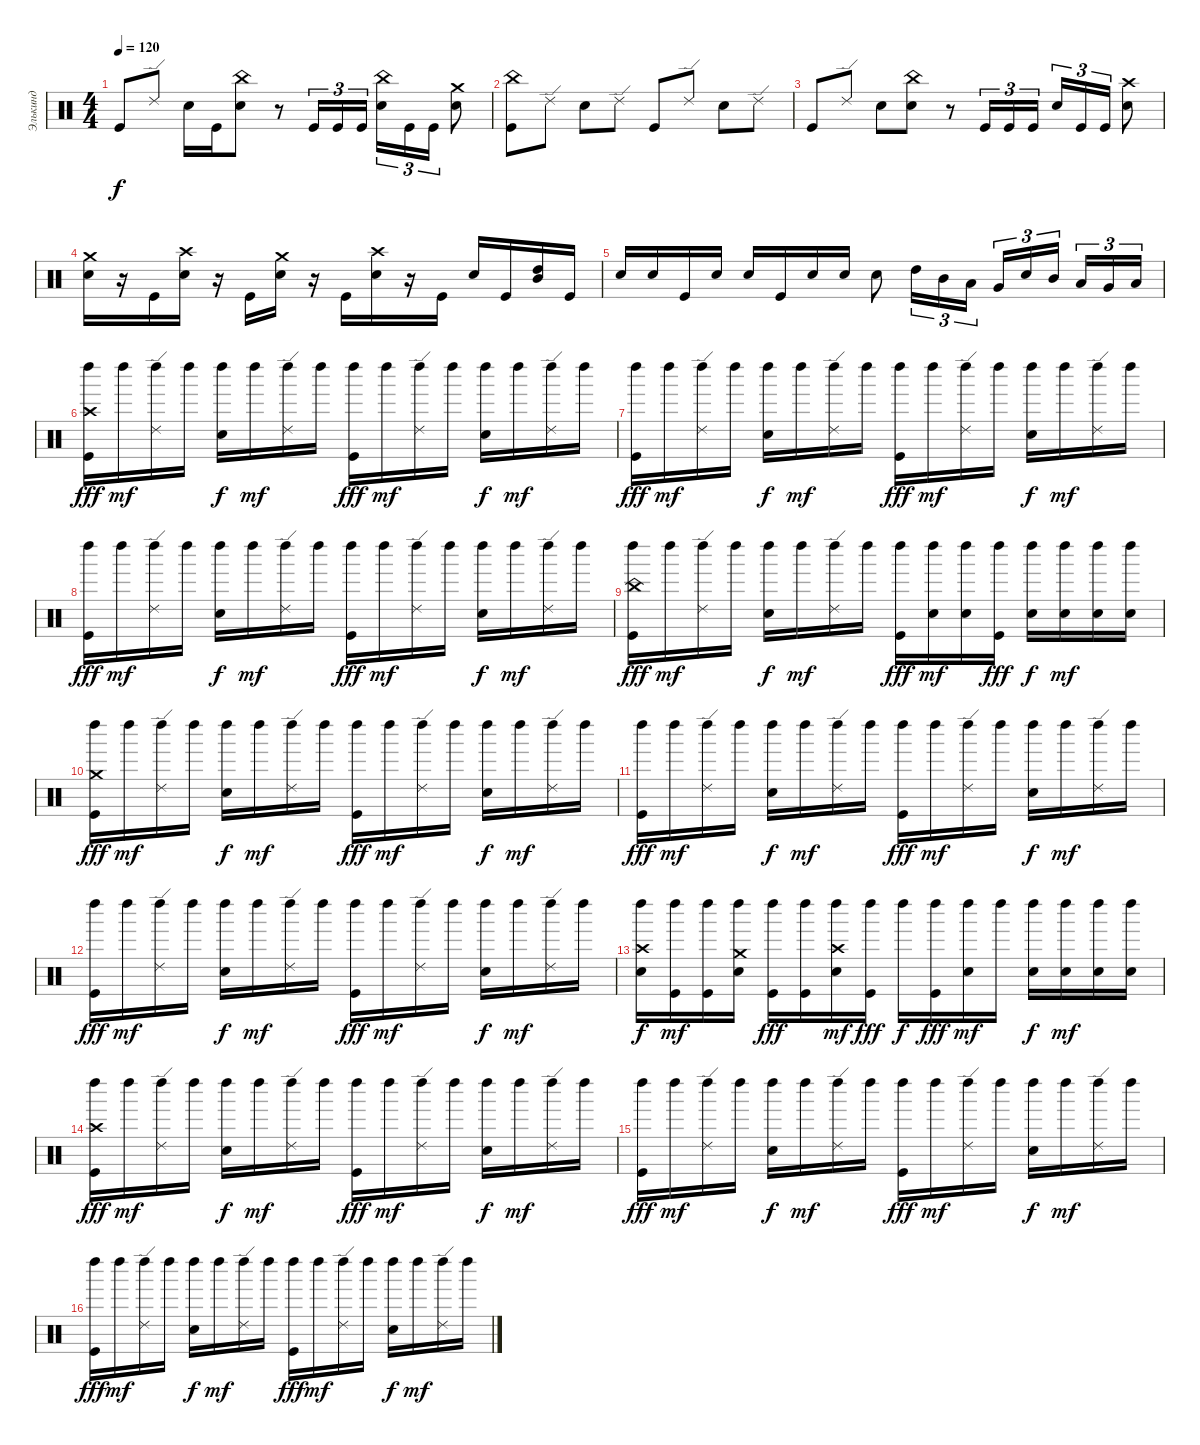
\track ("Элькинд" "Элькинд") {instrument percussion}
\staff {score}
\articulation defaults
\ts (4 4)
\tempo 120
\clef neutral
\ks c "Kick (hit)".8{dy f} "Ride (edge) 2".8 "Electric Snare (hit)".16 "Kick (hit)".16
("China (hit)" "Electric Snare (hit)").8 r.8 "Kick (hit)".16{tu (3 2)} "Kick (hit)".16{tu (3 2)} "Kick (hit)".16{tu (3 2)} ("China (hit)" "Electric Snare (hit)").16{tu (3 2)} "Kick (hit)".16{tu (3 2)} "Kick (hit)".16{tu (3 2)} ("Crash medium (hit)" "Electric Snare (hit)").8 |
("China (hit)" "Kick (hit)").8 "Ride (edge) 2".8 "Electric Snare (hit)".8 "Ride (edge) 2".8 "Kick (hit)".8 "Ride (edge) 2".8 "Electric Snare (hit)".8 "Ride (edge) 2".8 |
"Kick (hit)".8 "Ride (edge) 2".8 "Electric Snare (hit)".8 ("China (hit)" "Electric Snare (hit)").8 r.8 "Kick (hit)".16{tu (3 2)} "Kick (hit)".16{tu (3 2)} "Kick (hit)".16{tu (3 2)} "Electric Snare (hit)".16{tu (3 2)} "Kick (hit)".16{tu (3 2)} "Kick (hit)".16{tu (3 2)} ("Crash high (hit)" "Electric Snare (hit)").8 |
("Crash medium (hit)" "Electric Snare (hit)").16 r.16 "Kick (hit)".16 ("Crash high (hit)" "Electric Snare (hit)").16 r.16 "Kick (hit)".16 ("Crash medium (hit)" "Electric Snare (hit)").16 r.16 "Kick (hit)".16 ("Crash high (hit)" "Electric Snare (hit)").16 r.16 "Kick (hit)".16 "Electric Snare (hit)".16 "Kick (hit)".16 ("High Tom (hit)" "Mid Tom (hit)").16 "Kick (hit)".16 |
"Electric Snare (hit)".16 "Electric Snare (hit)".16 "Kick (hit)".16 "Electric Snare (hit)".16 "Electric Snare (hit)".16 "Kick (hit)".16 "Electric Snare (hit)".16 "Electric Snare (hit)".16 "Electric Snare (hit)".8 "High Tom (hit)".16{tu (3 2)} "Mid Tom (hit)".16{tu (3 2)} "Low Tom (hit)".16{tu (3 2)} "Very Low Tom (hit)".16{tu (3 2)} "Electric Snare (hit)".16{tu (3 2)} "Mid Tom (hit)".16{tu (3 2) beam splitsecondary} "Low Tom (hit)".16{tu (3 2)} "Very Low Tom (hit)".16{tu (3 2)} "Low Floor Tom (hit)".16{tu (3 2)} |
("Left Maraca (hit)" "Crash high (hit)" "Kick (hit)").16{dy fff} "Left Maraca (hit)".16{dy mf} ("Left Maraca (hit)" "Ride (edge) 2").16 "Left Maraca (hit)".16 ("Left Maraca (hit)" "Electric Snare (hit)").16{dy f} "Left Maraca (hit)".16{dy mf} ("Left Maraca (hit)" "Ride (edge) 2").16 "Left Maraca (hit)".16 ("Left Maraca (hit)" "Kick (hit)").16{dy fff} "Left Maraca (hit)".16{dy mf} ("Left Maraca (hit)" "Ride (edge) 2").16 "Left Maraca (hit)".16 ("Left Maraca (hit)" "Electric Snare (hit)").16{dy f} "Left Maraca (hit)".16{dy mf} ("Left Maraca (hit)" "Ride (edge) 2").16 "Left Maraca (hit)".16 |
("Left Maraca (hit)" "Kick (hit)").16{dy fff} "Left Maraca (hit)".16{dy mf} ("Left Maraca (hit)" "Ride (edge) 2").16 "Left Maraca (hit)".16 ("Left Maraca (hit)" "Electric Snare (hit)").16{dy f} "Left Maraca (hit)".16{dy mf} ("Left Maraca (hit)" "Ride (edge) 2").16 "Left Maraca (hit)".16 ("Left Maraca (hit)" "Kick (hit)").16{dy fff} "Left Maraca (hit)".16{dy mf} ("Left Maraca (hit)" "Ride (edge) 2").16 "Left Maraca (hit)".16 ("Left Maraca (hit)" "Electric Snare (hit)").16{dy f} "Left Maraca (hit)".16{dy mf} ("Left Maraca (hit)" "Ride (edge) 2").16 "Left Maraca (hit)".16 |
("Left Maraca (hit)" "Kick (hit)").16{dy fff} "Left Maraca (hit)".16{dy mf} ("Left Maraca (hit)" "Ride (edge) 2").16 "Left Maraca (hit)".16 ("Left Maraca (hit)" "Electric Snare (hit)").16{dy f} "Left Maraca (hit)".16{dy mf} ("Left Maraca (hit)" "Ride (edge) 2").16 "Left Maraca (hit)".16 ("Left Maraca (hit)" "Kick (hit)").16{dy fff} "Left Maraca (hit)".16{dy mf} ("Left Maraca (hit)" "Ride (edge) 2").16 "Left Maraca (hit)".16 ("Left Maraca (hit)" "Electric Snare (hit)").16{dy f} "Left Maraca (hit)".16{dy mf} ("Left Maraca (hit)" "Ride (edge) 2").16 "Left Maraca (hit)".16 |
("Kick (hit)" "China (hit)" "Left Maraca (hit)").16{dy fff} "Left Maraca (hit)".16{dy mf} ("Left Maraca (hit)" "Ride (edge) 2").16 "Left Maraca (hit)".16 ("Electric Snare (hit)" "Left Maraca (hit)").16{dy f} "Left Maraca (hit)".16{dy mf} ("Ride (edge) 2" "Left Maraca (hit)").16 "Left Maraca (hit)".16 ("Left Maraca (hit)" "Kick (hit)").16{dy fff} ("Electric Snare (hit)" "Left Maraca (hit)").16{dy mf} ("Left Maraca (hit)" "Electric Snare (hit)").16 ("Left Maraca (hit)" "Kick (hit)").16{dy fff} ("Electric Snare (hit)" "Left Maraca (hit)").16{dy f} ("Left Maraca (hit)" "Electric Snare (hit)").16{dy mf} ("Left Maraca (hit)" "Electric Snare (hit)").16 ("Electric Snare (hit)" "Left Maraca (hit)").16 |
("Left Maraca (hit)" "Crash medium (hit)" "Kick (hit)").16{dy fff} "Left Maraca (hit)".16{dy mf} ("Left Maraca (hit)" "Ride (edge) 2").16 "Left Maraca (hit)".16 ("Left Maraca (hit)" "Electric Snare (hit)").16{dy f} "Left Maraca (hit)".16{dy mf} ("Left Maraca (hit)" "Ride (edge) 2").16 "Left Maraca (hit)".16 ("Left Maraca (hit)" "Kick (hit)").16{dy fff} "Left Maraca (hit)".16{dy mf} ("Left Maraca (hit)" "Ride (edge) 2").16 "Left Maraca (hit)".16 ("Left Maraca (hit)" "Electric Snare (hit)").16{dy f} "Left Maraca (hit)".16{dy mf} ("Left Maraca (hit)" "Ride (edge) 2").16 "Left Maraca (hit)".16 |
("Left Maraca (hit)" "Kick (hit)").16{dy fff} "Left Maraca (hit)".16{dy mf} ("Left Maraca (hit)" "Ride (edge) 2").16 "Left Maraca (hit)".16 ("Left Maraca (hit)" "Electric Snare (hit)").16{dy f} "Left Maraca (hit)".16{dy mf} ("Left Maraca (hit)" "Ride (edge) 2").16 "Left Maraca (hit)".16 ("Left Maraca (hit)" "Kick (hit)").16{dy fff} "Left Maraca (hit)".16{dy mf} ("Left Maraca (hit)" "Ride (edge) 2").16 "Left Maraca (hit)".16 ("Left Maraca (hit)" "Electric Snare (hit)").16{dy f} "Left Maraca (hit)".16{dy mf} ("Left Maraca (hit)" "Ride (edge) 2").16 "Left Maraca (hit)".16 |
("Left Maraca (hit)" "Kick (hit)").16{dy fff} "Left Maraca (hit)".16{dy mf} ("Left Maraca (hit)" "Ride (edge) 2").16 "Left Maraca (hit)".16 ("Left Maraca (hit)" "Electric Snare (hit)").16{dy f} "Left Maraca (hit)".16{dy mf} ("Left Maraca (hit)" "Ride (edge) 2").16 "Left Maraca (hit)".16 ("Left Maraca (hit)" "Kick (hit)").16{dy fff} "Left Maraca (hit)".16{dy mf} ("Left Maraca (hit)" "Ride (edge) 2").16 "Left Maraca (hit)".16 ("Left Maraca (hit)" "Electric Snare (hit)").16{dy f} "Left Maraca (hit)".16{dy mf} ("Left Maraca (hit)" "Ride (edge) 2").16 "Left Maraca (hit)".16 |
("Crash high (hit)" "Electric Snare (hit)" "Left Maraca (hit)").16{dy f} ("Kick (hit)" "Left Maraca (hit)").16{dy mf} ("Kick (hit)" "Left Maraca (hit)").16 ("Left Maraca (hit)" "Crash medium (hit)" "Electric Snare (hit)").16 ("Kick (hit)" "Left Maraca (hit)").16{dy fff} ("Left Maraca (hit)" "Kick (hit)").16 ("Left Maraca (hit)" "Crash high (hit)" "Electric Snare (hit)").16{dy mf} ("Left Maraca (hit)" "Kick (hit)").16{dy fff} "Left Maraca (hit)".16{dy f} ("Left Maraca (hit)" "Kick (hit)").16{dy fff} ("Electric Snare (hit)" "Left Maraca (hit)").16{dy mf} "Left Maraca (hit)".16 ("Left Maraca (hit)" "Electric Snare (hit)").16{dy f} ("Electric Snare (hit)" "Left Maraca (hit)").16{dy mf} ("Electric Snare (hit)" "Left Maraca (hit)").16 ("Electric Snare (hit)" "Left Maraca (hit)").16 |
("Left Maraca (hit)" "Crash high (hit)" "Kick (hit)").16{dy fff} "Left Maraca (hit)".16{dy mf} ("Left Maraca (hit)" "Ride (edge) 2").16 "Left Maraca (hit)".16 ("Left Maraca (hit)" "Electric Snare (hit)").16{dy f} "Left Maraca (hit)".16{dy mf} ("Left Maraca (hit)" "Ride (edge) 2").16 "Left Maraca (hit)".16 ("Left Maraca (hit)" "Kick (hit)").16{dy fff} "Left Maraca (hit)".16{dy mf} ("Left Maraca (hit)" "Ride (edge) 2").16 "Left Maraca (hit)".16 ("Left Maraca (hit)" "Electric Snare (hit)").16{dy f} "Left Maraca (hit)".16{dy mf} ("Left Maraca (hit)" "Ride (edge) 2").16 "Left Maraca (hit)".16 |
("Left Maraca (hit)" "Kick (hit)").16{dy fff} "Left Maraca (hit)".16{dy mf} ("Left Maraca (hit)" "Ride (edge) 2").16 "Left Maraca (hit)".16 ("Left Maraca (hit)" "Electric Snare (hit)").16{dy f} "Left Maraca (hit)".16{dy mf} ("Left Maraca (hit)" "Ride (edge) 2").16 "Left Maraca (hit)".16 ("Left Maraca (hit)" "Kick (hit)").16{dy fff} "Left Maraca (hit)".16{dy mf} ("Left Maraca (hit)" "Ride (edge) 2").16 "Left Maraca (hit)".16 ("Left Maraca (hit)" "Electric Snare (hit)").16{dy f} "Left Maraca (hit)".16{dy mf} ("Left Maraca (hit)" "Ride (edge) 2").16 "Left Maraca (hit)".16 |
("Left Maraca (hit)" "Kick (hit)").16{dy fff} "Left Maraca (hit)".16{dy mf} ("Left Maraca (hit)" "Ride (edge) 2").16 "Left Maraca (hit)".16 ("Left Maraca (hit)" "Electric Snare (hit)").16{dy f} "Left Maraca (hit)".16{dy mf} ("Left Maraca (hit)" "Ride (edge) 2").16 "Left Maraca (hit)".16 ("Left Maraca (hit)" "Kick (hit)").16{dy fff} "Left Maraca (hit)".16{dy mf} ("Left Maraca (hit)" "Ride (edge) 2").16 "Left Maraca (hit)".16 ("Left Maraca (hit)" "Electric Snare (hit)").16{dy f} "Left Maraca (hit)".16{dy mf} ("Left Maraca (hit)" "Ride (edge) 2").16 "Left Maraca (hit)".16
